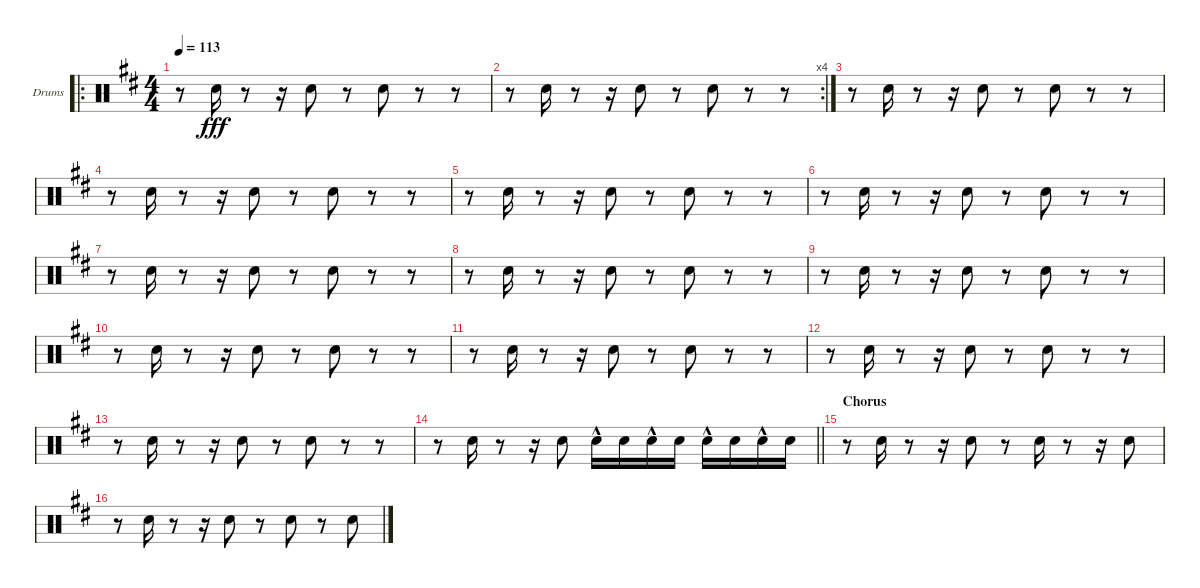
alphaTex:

\bracketExtendMode groupsimilarinstruments
\firstSystemTrackNameOrientation horizontal
\otherSystemsTrackNameOrientation horizontal
\track ("Snare" "Drums") {instrument percussion}
\staff {score}
\articulation defaults
\ro
\ts (4 4)
\beaming (8 2 2 2 2)
\tempo 113
\clef neutral
\scale
0.528
\ks d
r.8{dy fff} "Snare (hit) 2".16 r.8 r.16 "Snare (hit) 2".8 r.8 "Snare (hit) 2".8 r.8 r.8 |
\rc 4
\scale
0.248 r.8 "Snare (hit) 2".16 r.8 r.16 "Snare (hit) 2".8 r.8 "Snare (hit) 2".8 r.8 r.8 |
\scale
0.224 r.8 "Snare (hit) 2".16 r.8 r.16 "Snare (hit) 2".8 r.8 "Snare (hit) 2".8 r.8 r.8 |
\scale
0.333333 r.8 "Snare (hit) 2".16 r.8 r.16 "Snare (hit) 2".8 r.8 "Snare (hit) 2".8 r.8 r.8 |
\scale
0.333333 r.8 "Snare (hit) 2".16 r.8 r.16 "Snare (hit) 2".8 r.8 "Snare (hit) 2".8 r.8 r.8 |
\scale
0.333333 r.8 "Snare (hit) 2".16 r.8 r.16 "Snare (hit) 2".8 r.8 "Snare (hit) 2".8 r.8 r.8 |
\scale
0.333333 r.8 "Snare (hit) 2".16 r.8 r.16 "Snare (hit) 2".8 r.8 "Snare (hit) 2".8 r.8 r.8 |
\scale
0.333333 r.8 "Snare (hit) 2".16 r.8 r.16 "Snare (hit) 2".8 r.8 "Snare (hit) 2".8 r.8 r.8 |
\scale
0.333333 r.8 "Snare (hit) 2".16 r.8 r.16 "Snare (hit) 2".8 r.8 "Snare (hit) 2".8 r.8 r.8 |
\scale
0.333333 r.8 "Snare (hit) 2".16 r.8 r.16 "Snare (hit) 2".8 r.8 "Snare (hit) 2".8 r.8 r.8 |
\scale
0.333333 r.8 "Snare (hit) 2".16 r.8 r.16 "Snare (hit) 2".8 r.8 "Snare (hit) 2".8 r.8 r.8 |
\scale
0.333333 r.8 "Snare (hit) 2".16 r.8 r.16 "Snare (hit) 2".8 r.8 "Snare (hit) 2".8 r.8 r.8 |
\scale
0.333333 r.8 "Snare (hit) 2".16 r.8 r.16 "Snare (hit) 2".8 r.8 "Snare (hit) 2".8 r.8 r.8 |
\scale
0.333333
\barLineRight lightlight
r.8 "Snare (hit) 2".16 r.8 r.16 "Snare (hit) 2".8 "Snare (hit) 2"{hac}.16 "Snare (hit) 2".16 "Snare (hit) 2"{hac}.16 "Snare (hit) 2".16 "Snare (hit) 2"{hac}.16 "Snare (hit) 2".16 "Snare (hit) 2"{hac}.16 "Snare (hit) 2".16 |
\section ("" "Chorus")
\scale
0.333333 r.8 "Snare (hit) 2".16 r.8 r.16 "Snare (hit) 2".8 r.8 "Snare (hit) 2".16 r.8 r.16 "Snare (hit) 2".8 |
\scale
0.333333 r.8 "Snare (hit) 2".16 r.8 r.16 "Snare (hit) 2".8 r.8 "Snare (hit) 2".8 r.8 "Snare (hit) 2".8
